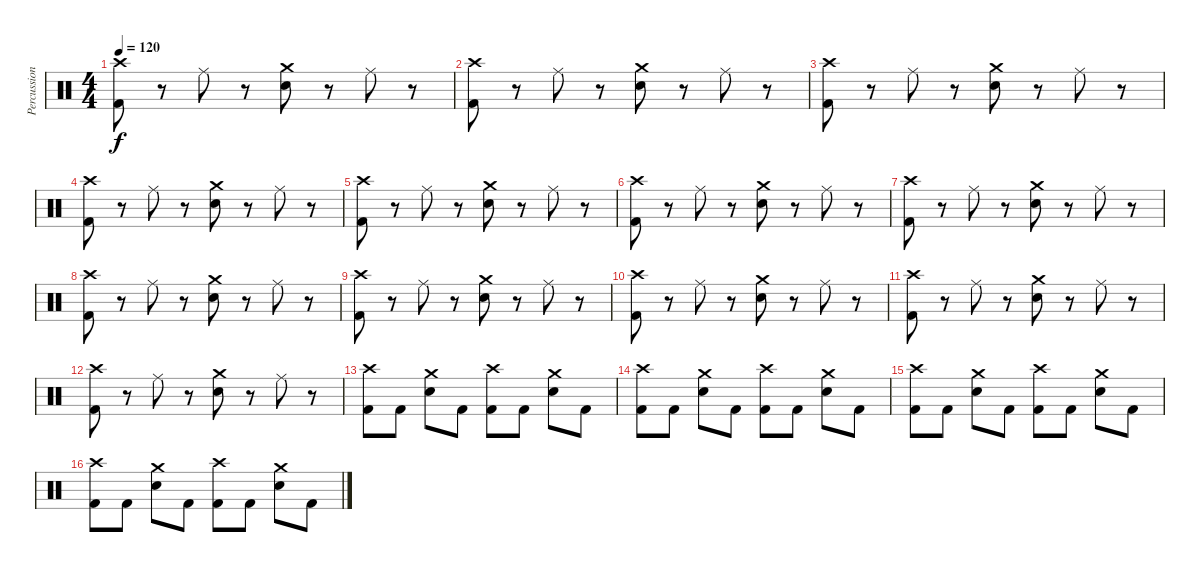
\track ("Percussion" "Percussion") {instrument percussion}
\staff {score}
\articulation defaults
\ts (4 4)
\tempo 120
\clef neutral
\ks c
("Crash high (hit)" "Kick (hit) 2").8{dy f} r.8 "Ride (middle)".8 r.8 ("Crash medium (hit)" "Snare (hit) 2").8 r.8 "Ride (middle)".8 r.8 |
("Crash high (hit)" "Kick (hit) 2").8 r.8 "Ride (middle)".8 r.8 ("Crash medium (hit)" "Snare (hit) 2").8 r.8 "Ride (middle)".8 r.8 |
("Crash high (hit)" "Kick (hit) 2").8 r.8 "Ride (middle)".8 r.8 ("Crash medium (hit)" "Snare (hit) 2").8 r.8 "Ride (middle)".8 r.8 |
("Crash high (hit)" "Kick (hit) 2").8 r.8 "Ride (middle)".8 r.8 ("Crash medium (hit)" "Snare (hit) 2").8 r.8 "Ride (middle)".8 r.8 |
("Crash high (hit)" "Kick (hit) 2").8 r.8 "Ride (middle)".8 r.8 ("Crash medium (hit)" "Snare (hit) 2").8 r.8 "Ride (middle)".8 r.8 |
("Crash high (hit)" "Kick (hit) 2").8 r.8 "Ride (middle)".8 r.8 ("Crash medium (hit)" "Snare (hit) 2").8 r.8 "Ride (middle)".8 r.8 |
("Crash high (hit)" "Kick (hit) 2").8 r.8 "Ride (middle)".8 r.8 ("Crash medium (hit)" "Snare (hit) 2").8 r.8 "Ride (middle)".8 r.8 |
("Crash high (hit)" "Kick (hit) 2").8 r.8 "Ride (middle)".8 r.8 ("Crash medium (hit)" "Snare (hit) 2").8 r.8 "Ride (middle)".8 r.8 |
("Crash high (hit)" "Kick (hit) 2").8 r.8 "Ride (middle)".8 r.8 ("Crash medium (hit)" "Snare (hit) 2").8 r.8 "Ride (middle)".8 r.8 |
("Crash high (hit)" "Kick (hit) 2").8 r.8 "Ride (middle)".8 r.8 ("Crash medium (hit)" "Snare (hit) 2").8 r.8 "Ride (middle)".8 r.8 |
("Crash high (hit)" "Kick (hit) 2").8 r.8 "Ride (middle)".8 r.8 ("Crash medium (hit)" "Snare (hit) 2").8 r.8 "Ride (middle)".8 r.8 |
("Crash high (hit)" "Kick (hit) 2").8 r.8 "Ride (middle)".8 r.8 ("Crash medium (hit)" "Snare (hit) 2").8 r.8 "Ride (middle)".8 r.8 |
("Crash high (hit)" "Kick (hit) 2").8 "Kick (hit) 2".8 ("Crash medium (hit)" "Snare (hit) 2").8 "Kick (hit) 2".8 ("Crash high (hit)" "Kick (hit) 2").8 "Kick (hit) 2".8 ("Crash medium (hit)" "Snare (hit) 2").8 "Kick (hit) 2".8 |
("Crash high (hit)" "Kick (hit) 2").8 "Kick (hit) 2".8 ("Crash medium (hit)" "Snare (hit) 2").8 "Kick (hit) 2".8 ("Crash high (hit)" "Kick (hit) 2").8 "Kick (hit) 2".8 ("Crash medium (hit)" "Snare (hit) 2").8 "Kick (hit) 2".8 |
("Crash high (hit)" "Kick (hit) 2").8 "Kick (hit) 2".8 ("Crash medium (hit)" "Snare (hit) 2").8 "Kick (hit) 2".8 ("Crash high (hit)" "Kick (hit) 2").8 "Kick (hit) 2".8 ("Crash medium (hit)" "Snare (hit) 2").8 "Kick (hit) 2".8 |
("Crash high (hit)" "Kick (hit) 2").8 "Kick (hit) 2".8 ("Crash medium (hit)" "Snare (hit) 2").8 "Kick (hit) 2".8 ("Crash high (hit)" "Kick (hit) 2").8 "Kick (hit) 2".8 ("Crash medium (hit)" "Snare (hit) 2").8 "Kick (hit) 2".8
